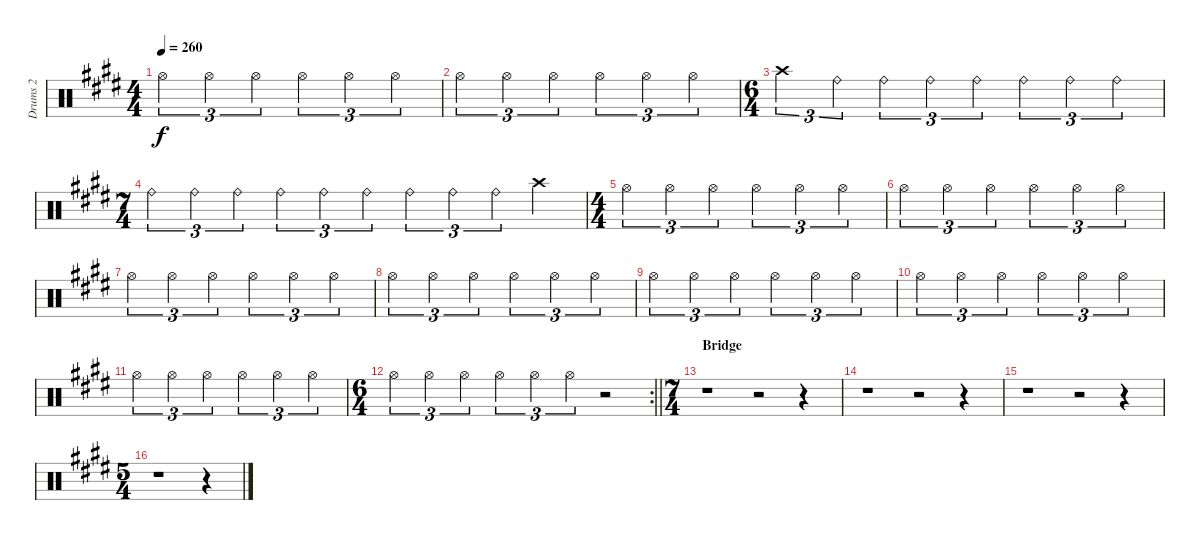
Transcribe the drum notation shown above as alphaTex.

\track ("Drums 2" "Drums 2") {instrument percussion}
\staff {score}
\articulation defaults
\ts (4 4)
\tempo 260
\clef neutral
\ks c#minor "Hi-Hat (open)".4{tu (3 2) dy f} "Hi-Hat (open)".4{tu (3 2)} "Hi-Hat (open)".4{tu (3 2)} "Hi-Hat (open)".4{tu (3 2)} "Hi-Hat (open)".4{tu (3 2)} "Hi-Hat (open)".4{tu (3 2)}
|
"Hi-Hat (open)".4{tu (3 2)} "Hi-Hat (open)".4{tu (3 2)} "Hi-Hat (open)".4{tu (3 2)} "Hi-Hat (open)".4{tu (3 2)} "Hi-Hat (open)".4{tu (3 2)} "Hi-Hat (open)".4{tu (3 2)} |
\ts (6 4)
"Crash high (hit)".2{tu (3 2)} "Ride (bell)".4{tu (3 2)} "Ride (bell)".4{tu (3 2)} "Ride (bell)".4{tu (3 2)} "Ride (bell)".4{tu (3 2)} "Ride (bell)".4{tu (3 2)} "Ride (bell)".4{tu (3 2)} "Ride (bell)".4{tu (3 2)} |
\ts (7 4)
"Ride (bell)".4{tu (3 2)} "Ride (bell)".4{tu (3 2)} "Ride (bell)".4{tu (3 2)} "Ride (bell)".4{tu (3 2)} "Ride (bell)".4{tu (3 2)} "Ride (bell)".4{tu (3 2)} "Ride (bell)".4{tu (3 2)} "Ride (bell)".4{tu (3 2)} "Ride (bell)".4{tu (3 2)} "Crash high (hit)".4 |
\ts (4 4)
"Hi-Hat (open)".4{tu (3 2)} "Hi-Hat (open)".4{tu (3 2)} "Hi-Hat (open)".4{tu (3 2)} "Hi-Hat (open)".4{tu (3 2)} "Hi-Hat (open)".4{tu (3 2)} "Hi-Hat (open)".4{tu (3 2)} |
"Hi-Hat (open)".4{tu (3 2)} "Hi-Hat (open)".4{tu (3 2)} "Hi-Hat (open)".4{tu (3 2)} "Hi-Hat (open)".4{tu (3 2)} "Hi-Hat (open)".4{tu (3 2)} "Hi-Hat (open)".4{tu (3 2)} |
"Hi-Hat (open)".4{tu (3 2)} "Hi-Hat (open)".4{tu (3 2)} "Hi-Hat (open)".4{tu (3 2)} "Hi-Hat (open)".4{tu (3 2)} "Hi-Hat (open)".4{tu (3 2)} "Hi-Hat (open)".4{tu (3 2)} |
"Hi-Hat (open)".4{tu (3 2)} "Hi-Hat (open)".4{tu (3 2)} "Hi-Hat (open)".4{tu (3 2)} "Hi-Hat (open)".4{tu (3 2)} "Hi-Hat (open)".4{tu (3 2)} "Hi-Hat (open)".4{tu (3 2)} |
"Hi-Hat (open)".4{tu (3 2)} "Hi-Hat (open)".4{tu (3 2)} "Hi-Hat (open)".4{tu (3 2)} "Hi-Hat (open)".4{tu (3 2)} "Hi-Hat (open)".4{tu (3 2)} "Hi-Hat (open)".4{tu (3 2)} |
"Hi-Hat (open)".4{tu (3 2)} "Hi-Hat (open)".4{tu (3 2)} "Hi-Hat (open)".4{tu (3 2)} "Hi-Hat (open)".4{tu (3 2)} "Hi-Hat (open)".4{tu (3 2)} "Hi-Hat (open)".4{tu (3 2)} |
"Hi-Hat (open)".4{tu (3 2)} "Hi-Hat (open)".4{tu (3 2)} "Hi-Hat (open)".4{tu (3 2)} "Hi-Hat (open)".4{tu (3 2)} "Hi-Hat (open)".4{tu (3 2)} "Hi-Hat (open)".4{tu (3 2)} |
\rc 2
\ts (6 4)
\barLineRight lightlight "Hi-Hat (open)".4{tu (3 2)} "Hi-Hat (open)".4{tu (3 2)} "Hi-Hat (open)".4{tu (3 2)} "Hi-Hat (open)".4{tu (3 2)} "Hi-Hat (open)".4{tu (3 2)} "Hi-Hat (open)".4{tu (3 2)}
r.2 |
\ts (7 4)
\section ("" "Bridge")
r.1 r.2 r.4 |
r.1 r.2 r.4 |
r.1 r.2 r.4 |
\ts (5 4)
r.1 r.4
